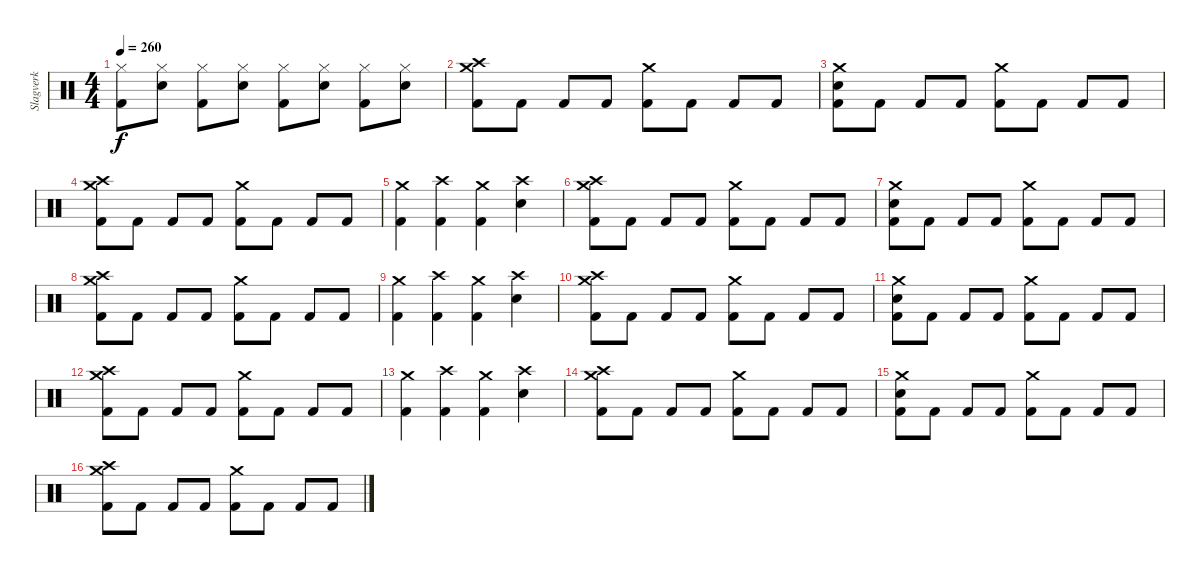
\track ("Slagverk" "Slagverk") {instrument percussion}
\staff {score}
\articulation defaults
\ts (4 4)
\tempo 260
\clef neutral
\ks c
("Hi-Hat (closed)" "Kick (hit) 2").8{dy f} ("Electric Snare (hit)" "Hi-Hat (closed)").8 ("Hi-Hat (closed)" "Kick (hit) 2").8 ("Electric Snare (hit)" "Hi-Hat (closed)").8 ("Hi-Hat (closed)" "Kick (hit) 2").8 ("Electric Snare (hit)" "Hi-Hat (closed)").8 ("Hi-Hat (closed)" "Kick (hit) 2").8 ("Electric Snare (hit)" "Hi-Hat (closed)").8 |
("Crash medium (hit)" "Crash high (hit)" "Kick (hit) 2").8 "Kick (hit) 2".8 "Kick (hit) 2".8 "Kick (hit) 2".8 ("Crash medium (hit)" "Kick (hit) 2").8 "Kick (hit) 2".8 "Kick (hit) 2".8 "Kick (hit) 2".8 |
("Electric Snare (hit)" "Crash medium (hit)" "Kick (hit) 2").8 "Kick (hit) 2".8 "Kick (hit) 2".8 "Kick (hit) 2".8 ("Crash medium (hit)" "Kick (hit) 2").8 "Kick (hit) 2".8 "Kick (hit) 2".8 "Kick (hit) 2".8 |
("Crash medium (hit)" "Crash high (hit)" "Kick (hit) 2").8 "Kick (hit) 2".8 "Kick (hit) 2".8 "Kick (hit) 2".8 ("Crash medium (hit)" "Kick (hit) 2").8 "Kick (hit) 2".8 "Kick (hit) 2".8 "Kick (hit) 2".8 |
("Crash medium (hit)" "Kick (hit) 2").4 ("Crash high (hit)" "Kick (hit) 2").4 ("Crash medium (hit)" "Kick (hit) 2").4 ("Crash high (hit)" "Electric Snare (hit)").4 |
("Crash medium (hit)" "Crash high (hit)" "Kick (hit) 2").8 "Kick (hit) 2".8 "Kick (hit) 2".8 "Kick (hit) 2".8 ("Crash medium (hit)" "Kick (hit) 2").8 "Kick (hit) 2".8 "Kick (hit) 2".8 "Kick (hit) 2".8 |
("Electric Snare (hit)" "Crash medium (hit)" "Kick (hit) 2").8 "Kick (hit) 2".8 "Kick (hit) 2".8 "Kick (hit) 2".8 ("Crash medium (hit)" "Kick (hit) 2").8 "Kick (hit) 2".8 "Kick (hit) 2".8 "Kick (hit) 2".8 |
("Crash medium (hit)" "Crash high (hit)" "Kick (hit) 2").8 "Kick (hit) 2".8 "Kick (hit) 2".8 "Kick (hit) 2".8 ("Crash medium (hit)" "Kick (hit) 2").8 "Kick (hit) 2".8 "Kick (hit) 2".8 "Kick (hit) 2".8 |
("Crash medium (hit)" "Kick (hit) 2").4 ("Crash high (hit)" "Kick (hit) 2").4 ("Crash medium (hit)" "Kick (hit) 2").4 ("Crash high (hit)" "Electric Snare (hit)").4 |
("Crash medium (hit)" "Crash high (hit)" "Kick (hit) 2").8 "Kick (hit) 2".8 "Kick (hit) 2".8 "Kick (hit) 2".8 ("Crash medium (hit)" "Kick (hit) 2").8 "Kick (hit) 2".8 "Kick (hit) 2".8 "Kick (hit) 2".8 |
("Electric Snare (hit)" "Crash medium (hit)" "Kick (hit) 2").8 "Kick (hit) 2".8 "Kick (hit) 2".8 "Kick (hit) 2".8 ("Crash medium (hit)" "Kick (hit) 2").8 "Kick (hit) 2".8 "Kick (hit) 2".8 "Kick (hit) 2".8 |
("Crash medium (hit)" "Crash high (hit)" "Kick (hit) 2").8 "Kick (hit) 2".8 "Kick (hit) 2".8 "Kick (hit) 2".8 ("Crash medium (hit)" "Kick (hit) 2").8 "Kick (hit) 2".8 "Kick (hit) 2".8 "Kick (hit) 2".8 |
("Crash medium (hit)" "Kick (hit) 2").4 ("Crash high (hit)" "Kick (hit) 2").4 ("Crash medium (hit)" "Kick (hit) 2").4 ("Crash high (hit)" "Electric Snare (hit)").4 |
("Crash medium (hit)" "Crash high (hit)" "Kick (hit) 2").8 "Kick (hit) 2".8 "Kick (hit) 2".8 "Kick (hit) 2".8 ("Crash medium (hit)" "Kick (hit) 2").8 "Kick (hit) 2".8 "Kick (hit) 2".8 "Kick (hit) 2".8 |
("Electric Snare (hit)" "Crash medium (hit)" "Kick (hit) 2").8 "Kick (hit) 2".8 "Kick (hit) 2".8 "Kick (hit) 2".8 ("Crash medium (hit)" "Kick (hit) 2").8 "Kick (hit) 2".8 "Kick (hit) 2".8 "Kick (hit) 2".8 |
("Crash medium (hit)" "Crash high (hit)" "Kick (hit) 2").8 "Kick (hit) 2".8 "Kick (hit) 2".8 "Kick (hit) 2".8 ("Crash medium (hit)" "Kick (hit) 2").8 "Kick (hit) 2".8 "Kick (hit) 2".8 "Kick (hit) 2".8
